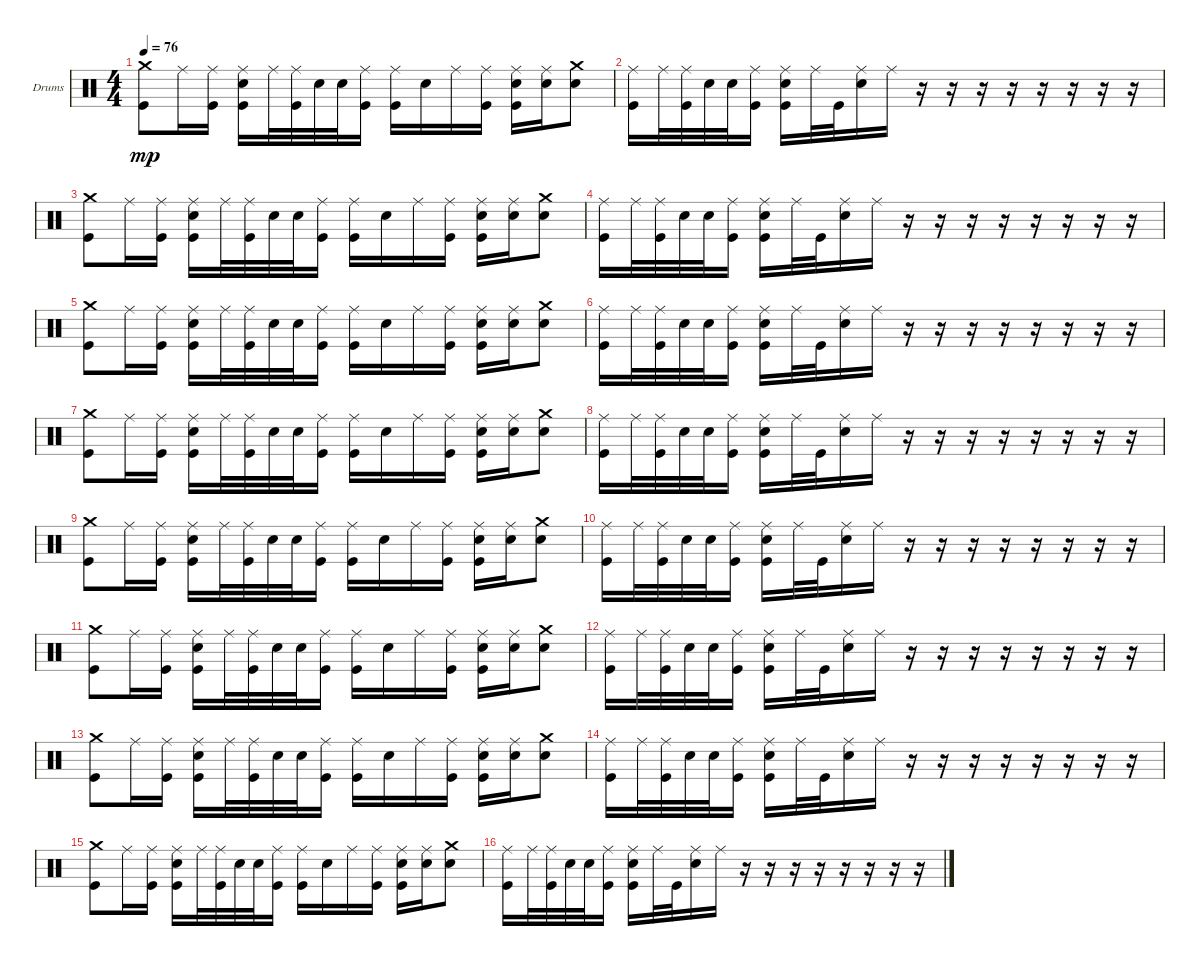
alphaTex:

\bracketExtendMode groupsimilarinstruments
\firstSystemTrackNameOrientation horizontal
\otherSystemsTrackNameOrientation horizontal
\track ("Drumkit" "Drums") {instrument percussion}
\staff {score}
\articulation defaults
\ts (4 4)
\tempo 76
\clef neutral
\ks c
("Crash medium (hit)" "Kick (hit)").8{dy mp} "Ride (middle)".16 ("Kick (hit)" "Ride (middle)").16 ("Snare (hit) 2" "Kick (hit)" "Ride (middle)").16 "Ride (middle)".32 ("Kick (hit)" "Ride (middle)").32 "Snare (hit) 2".32 "Snare (hit) 2".32 ("Kick (hit)" "Ride (middle)").16 ("Kick (hit)" "Ride (middle)").16 "Snare (hit) 2".16 "Ride (middle)".16 ("Kick (hit)" "Ride (middle)").16 ("Kick (hit)" "Snare (hit) 2" "Ride (middle)").16 ("Snare (hit) 2" "Ride (middle)").16 ("Snare (hit) 2" "Crash medium (hit)").8 |
("Ride (middle)" "Kick (hit)").16 "Ride (middle)".32 ("Kick (hit)" "Ride (middle)").32 "Snare (hit) 2".32 "Snare (hit) 2".32 ("Kick (hit)" "Ride (middle)").16 ("Ride (middle)" "Kick (hit)" "Snare (hit) 2").16 "Ride (middle)".32 "Kick (hit)".32 ("Ride (middle)" "Snare (hit) 2").16 "Ride (middle)".16 r.16 r.16 r.16 r.16 r.16 r.16 r.16 r.16 |
("Crash medium (hit)" "Kick (hit)").8 "Ride (middle)".16 ("Kick (hit)" "Ride (middle)").16 ("Snare (hit) 2" "Kick (hit)" "Ride (middle)").16 "Ride (middle)".32 ("Kick (hit)" "Ride (middle)").32 "Snare (hit) 2".32 "Snare (hit) 2".32 ("Kick (hit)" "Ride (middle)").16 ("Kick (hit)" "Ride (middle)").16 "Snare (hit) 2".16 "Ride (middle)".16 ("Kick (hit)" "Ride (middle)").16 ("Kick (hit)" "Snare (hit) 2" "Ride (middle)").16 ("Snare (hit) 2" "Ride (middle)").16 ("Snare (hit) 2" "Crash medium (hit)").8 |
("Ride (middle)" "Kick (hit)").16 "Ride (middle)".32 ("Kick (hit)" "Ride (middle)").32 "Snare (hit) 2".32 "Snare (hit) 2".32 ("Kick (hit)" "Ride (middle)").16 ("Ride (middle)" "Kick (hit)" "Snare (hit) 2").16 "Ride (middle)".32 "Kick (hit)".32 ("Ride (middle)" "Snare (hit) 2").16 "Ride (middle)".16 r.16 r.16 r.16 r.16 r.16 r.16 r.16 r.16 |
("Crash medium (hit)" "Kick (hit)").8 "Ride (middle)".16 ("Kick (hit)" "Ride (middle)").16 ("Snare (hit) 2" "Kick (hit)" "Ride (middle)").16 "Ride (middle)".32 ("Kick (hit)" "Ride (middle)").32 "Snare (hit) 2".32 "Snare (hit) 2".32 ("Kick (hit)" "Ride (middle)").16 ("Kick (hit)" "Ride (middle)").16 "Snare (hit) 2".16 "Ride (middle)".16 ("Kick (hit)" "Ride (middle)").16 ("Kick (hit)" "Snare (hit) 2" "Ride (middle)").16 ("Snare (hit) 2" "Ride (middle)").16 ("Snare (hit) 2" "Crash medium (hit)").8 |
("Ride (middle)" "Kick (hit)").16 "Ride (middle)".32 ("Kick (hit)" "Ride (middle)").32 "Snare (hit) 2".32 "Snare (hit) 2".32 ("Kick (hit)" "Ride (middle)").16 ("Ride (middle)" "Kick (hit)" "Snare (hit) 2").16 "Ride (middle)".32 "Kick (hit)".32 ("Ride (middle)" "Snare (hit) 2").16 "Ride (middle)".16 r.16 r.16 r.16 r.16 r.16 r.16 r.16 r.16 |
("Crash medium (hit)" "Kick (hit)").8 "Ride (middle)".16 ("Kick (hit)" "Ride (middle)").16 ("Snare (hit) 2" "Kick (hit)" "Ride (middle)").16 "Ride (middle)".32 ("Kick (hit)" "Ride (middle)").32 "Snare (hit) 2".32 "Snare (hit) 2".32 ("Kick (hit)" "Ride (middle)").16 ("Kick (hit)" "Ride (middle)").16 "Snare (hit) 2".16 "Ride (middle)".16 ("Kick (hit)" "Ride (middle)").16 ("Kick (hit)" "Snare (hit) 2" "Ride (middle)").16 ("Snare (hit) 2" "Ride (middle)").16 ("Snare (hit) 2" "Crash medium (hit)").8 |
("Ride (middle)" "Kick (hit)").16 "Ride (middle)".32 ("Kick (hit)" "Ride (middle)").32 "Snare (hit) 2".32 "Snare (hit) 2".32 ("Kick (hit)" "Ride (middle)").16 ("Ride (middle)" "Kick (hit)" "Snare (hit) 2").16 "Ride (middle)".32 "Kick (hit)".32 ("Ride (middle)" "Snare (hit) 2").16 "Ride (middle)".16 r.16 r.16 r.16 r.16 r.16 r.16 r.16 r.16 |
("Crash medium (hit)" "Kick (hit)").8 "Ride (middle)".16 ("Kick (hit)" "Ride (middle)").16 ("Snare (hit) 2" "Kick (hit)" "Ride (middle)").16 "Ride (middle)".32 ("Kick (hit)" "Ride (middle)").32 "Snare (hit) 2".32 "Snare (hit) 2".32 ("Kick (hit)" "Ride (middle)").16 ("Kick (hit)" "Ride (middle)").16 "Snare (hit) 2".16 "Ride (middle)".16 ("Kick (hit)" "Ride (middle)").16 ("Kick (hit)" "Snare (hit) 2" "Ride (middle)").16 ("Snare (hit) 2" "Ride (middle)").16 ("Snare (hit) 2" "Crash medium (hit)").8 |
("Ride (middle)" "Kick (hit)").16 "Ride (middle)".32 ("Kick (hit)" "Ride (middle)").32 "Snare (hit) 2".32 "Snare (hit) 2".32 ("Kick (hit)" "Ride (middle)").16 ("Ride (middle)" "Kick (hit)" "Snare (hit) 2").16 "Ride (middle)".32 "Kick (hit)".32 ("Ride (middle)" "Snare (hit) 2").16 "Ride (middle)".16 r.16 r.16 r.16 r.16 r.16 r.16 r.16 r.16 |
("Crash medium (hit)" "Kick (hit)").8 "Ride (middle)".16 ("Kick (hit)" "Ride (middle)").16 ("Snare (hit) 2" "Kick (hit)" "Ride (middle)").16 "Ride (middle)".32 ("Kick (hit)" "Ride (middle)").32 "Snare (hit) 2".32 "Snare (hit) 2".32 ("Kick (hit)" "Ride (middle)").16 ("Kick (hit)" "Ride (middle)").16 "Snare (hit) 2".16 "Ride (middle)".16 ("Kick (hit)" "Ride (middle)").16 ("Kick (hit)" "Snare (hit) 2" "Ride (middle)").16 ("Snare (hit) 2" "Ride (middle)").16 ("Snare (hit) 2" "Crash medium (hit)").8 |
("Ride (middle)" "Kick (hit)").16 "Ride (middle)".32 ("Kick (hit)" "Ride (middle)").32 "Snare (hit) 2".32 "Snare (hit) 2".32 ("Kick (hit)" "Ride (middle)").16 ("Ride (middle)" "Kick (hit)" "Snare (hit) 2").16 "Ride (middle)".32 "Kick (hit)".32 ("Ride (middle)" "Snare (hit) 2").16 "Ride (middle)".16 r.16 r.16 r.16 r.16 r.16 r.16 r.16 r.16 |
("Crash medium (hit)" "Kick (hit)").8 "Ride (middle)".16 ("Kick (hit)" "Ride (middle)").16 ("Snare (hit) 2" "Kick (hit)" "Ride (middle)").16 "Ride (middle)".32 ("Kick (hit)" "Ride (middle)").32 "Snare (hit) 2".32 "Snare (hit) 2".32 ("Kick (hit)" "Ride (middle)").16 ("Kick (hit)" "Ride (middle)").16 "Snare (hit) 2".16 "Ride (middle)".16 ("Kick (hit)" "Ride (middle)").16 ("Kick (hit)" "Snare (hit) 2" "Ride (middle)").16 ("Snare (hit) 2" "Ride (middle)").16 ("Snare (hit) 2" "Crash medium (hit)").8 |
("Ride (middle)" "Kick (hit)").16 "Ride (middle)".32 ("Kick (hit)" "Ride (middle)").32 "Snare (hit) 2".32 "Snare (hit) 2".32 ("Kick (hit)" "Ride (middle)").16 ("Ride (middle)" "Kick (hit)" "Snare (hit) 2").16 "Ride (middle)".32 "Kick (hit)".32 ("Ride (middle)" "Snare (hit) 2").16 "Ride (middle)".16 r.16 r.16 r.16 r.16 r.16 r.16 r.16 r.16 |
("Crash medium (hit)" "Kick (hit)").8 "Ride (middle)".16 ("Kick (hit)" "Ride (middle)").16 ("Snare (hit) 2" "Kick (hit)" "Ride (middle)").16 "Ride (middle)".32 ("Kick (hit)" "Ride (middle)").32 "Snare (hit) 2".32 "Snare (hit) 2".32 ("Kick (hit)" "Ride (middle)").16 ("Kick (hit)" "Ride (middle)").16 "Snare (hit) 2".16 "Ride (middle)".16 ("Kick (hit)" "Ride (middle)").16 ("Kick (hit)" "Snare (hit) 2" "Ride (middle)").16 ("Snare (hit) 2" "Ride (middle)").16 ("Snare (hit) 2" "Crash medium (hit)").8 |
("Kick (hit)" "Ride (middle)").16 "Ride (middle)".32 ("Kick (hit)" "Ride (middle)").32 "Snare (hit) 2".32 "Snare (hit) 2".32 ("Kick (hit)" "Ride (middle)").16 ("Ride (middle)" "Kick (hit)" "Snare (hit) 2").16 "Ride (middle)".32 "Kick (hit)".32 ("Ride (middle)" "Snare (hit) 2").16 "Ride (middle)".16 r.16 r.16 r.16 r.16 r.16 r.16 r.16 r.16
